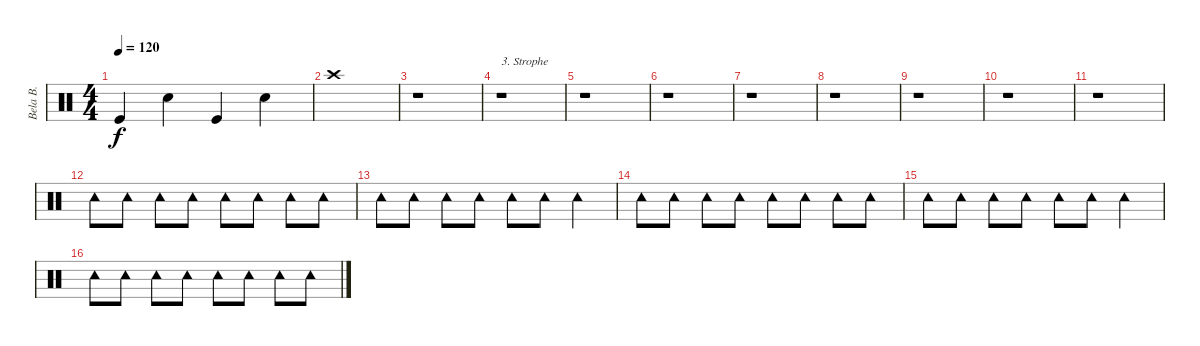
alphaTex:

\track ("Bela B." "Bela B.") {instrument percussion}
\staff {score}
\articulation defaults
\ts (4 4)
\tempo 120
\clef neutral
\ks c "Kick (hit)".4{dy f} "Electric Snare (hit)".4 "Kick (hit)".4 "Electric Snare (hit)".4
|
"Crash high (hit)".1 |
r.1 |
r.1{txt "3. Strophe"} |
r.1 |
r.1 |
r.1 |
r.1 |
r.1 |
r.1 |
r.1 |
"Tambourine (hit)".8 "Tambourine (hit)".8 "Tambourine (hit)".8 "Tambourine (hit)".8 "Tambourine (hit)".8 "Tambourine (hit)".8 "Tambourine (hit)".8 "Tambourine (hit)".8 |
"Tambourine (hit)".8 "Tambourine (hit)".8 "Tambourine (hit)".8 "Tambourine (hit)".8 "Tambourine (hit)".8 "Tambourine (hit)".8 "Tambourine (hit)".4 |
"Tambourine (hit)".8 "Tambourine (hit)".8 "Tambourine (hit)".8 "Tambourine (hit)".8 "Tambourine (hit)".8 "Tambourine (hit)".8 "Tambourine (hit)".8 "Tambourine (hit)".8 |
"Tambourine (hit)".8 "Tambourine (hit)".8 "Tambourine (hit)".8 "Tambourine (hit)".8 "Tambourine (hit)".8 "Tambourine (hit)".8 "Tambourine (hit)".4 |
"Tambourine (hit)".8 "Tambourine (hit)".8 "Tambourine (hit)".8 "Tambourine (hit)".8 "Tambourine (hit)".8 "Tambourine (hit)".8 "Tambourine (hit)".8 "Tambourine (hit)".8
